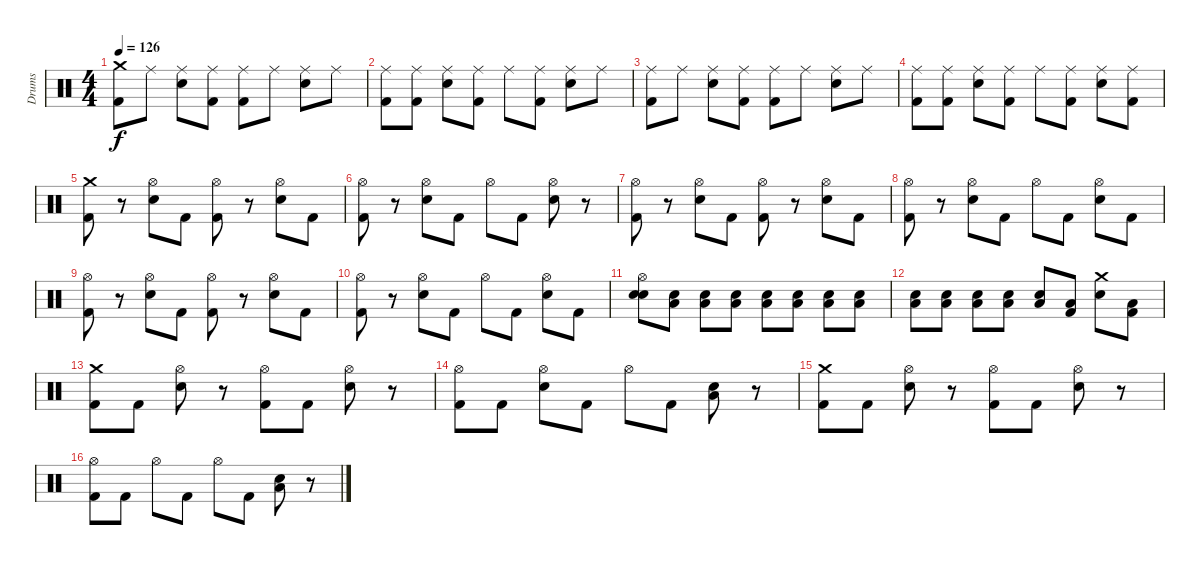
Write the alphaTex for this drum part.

\track ("Drums" "Drums") {instrument percussion}
\staff {score}
\articulation defaults
\ts (4 4)
\tempo 126
\clef neutral
\ks c
("Crash medium (hit)" "Kick (hit) 2").8{dy f} "Ride (middle)".8 ("Ride (middle)" "Snare (hit) 2").8 ("Ride (middle)" "Kick (hit) 2").8 ("Ride (middle)" "Kick (hit) 2").8 "Ride (middle)".8 ("Ride (middle)" "Snare (hit) 2").8 "Ride (middle)".8 |
("Ride (middle)" "Kick (hit) 2").8 ("Ride (middle)" "Kick (hit) 2").8 ("Ride (middle)" "Snare (hit) 2").8 ("Ride (middle)" "Kick (hit) 2").8 "Ride (middle)".8 ("Ride (middle)" "Kick (hit) 2").8 ("Ride (middle)" "Snare (hit) 2").8 "Ride (middle)".8 |
("Ride (middle)" "Kick (hit) 2").8 "Ride (middle)".8 ("Ride (middle)" "Snare (hit) 2").8 ("Ride (middle)" "Kick (hit) 2").8 ("Ride (middle)" "Kick (hit) 2").8 "Ride (middle)".8 ("Ride (middle)" "Snare (hit) 2").8 "Ride (middle)".8 |
("Ride (middle)" "Kick (hit) 2").8 ("Ride (middle)" "Kick (hit) 2").8 ("Ride (middle)" "Snare (hit) 2").8 ("Ride (middle)" "Kick (hit) 2").8 "Ride (middle)".8 ("Ride (middle)" "Kick (hit) 2").8 ("Ride (middle)" "Snare (hit) 2").8 ("Ride (middle)" "Kick (hit) 2").8 |
("Crash medium (hit)" "Kick (hit) 2").8 r.8 ("Hi-Hat (open)" "Snare (hit) 2").8 "Kick (hit) 2".8 ("Hi-Hat (open)" "Kick (hit) 2").8 r.8 ("Hi-Hat (open)" "Snare (hit) 2").8 "Kick (hit) 2".8 |
("Hi-Hat (open)" "Kick (hit) 2").8 r.8 ("Hi-Hat (open)" "Snare (hit) 2").8 "Kick (hit) 2".8 "Hi-Hat (open)".8 "Kick (hit) 2".8 ("Hi-Hat (open)" "Snare (hit) 2").8 r.8 |
("Hi-Hat (open)" "Kick (hit) 2").8 r.8 ("Hi-Hat (open)" "Snare (hit) 2").8 "Kick (hit) 2".8 ("Hi-Hat (open)" "Kick (hit) 2").8 r.8 ("Hi-Hat (open)" "Snare (hit) 2").8 "Kick (hit) 2".8 |
("Hi-Hat (open)" "Kick (hit) 2").8 r.8 ("Hi-Hat (open)" "Snare (hit) 2").8 "Kick (hit) 2".8 "Hi-Hat (open)".8 "Kick (hit) 2".8 ("Hi-Hat (open)" "Snare (hit) 2").8 "Kick (hit) 2".8 |
("Hi-Hat (open)" "Kick (hit) 2").8 r.8 ("Hi-Hat (open)" "Snare (hit) 2").8 "Kick (hit) 2".8 ("Hi-Hat (open)" "Kick (hit) 2").8 r.8 ("Hi-Hat (open)" "Snare (hit) 2").8 "Kick (hit) 2".8 |
("Hi-Hat (open)" "Kick (hit) 2").8 r.8 ("Hi-Hat (open)" "Snare (hit) 2").8 "Kick (hit) 2".8 "Hi-Hat (open)".8 "Kick (hit) 2".8 ("Hi-Hat (open)" "Snare (hit) 2").8 "Kick (hit) 2".8 |
("Hi-Hat (open)" "Snare (hit) 2" "Electric Snare (hit)").8 ("Snare (hit) 2" "Low Tom (hit)").8{volume 7} ("Snare (hit) 2" "Low Tom (hit)").8{volume 16} ("Snare (hit) 2" "Low Tom (hit)").8 ("Snare (hit) 2" "Low Tom (hit)").8 ("Snare (hit) 2" "Low Tom (hit)").8 ("Snare (hit) 2" "Low Tom (hit)").8 ("Snare (hit) 2" "Low Tom (hit)").8 |
("Snare (hit) 2" "Low Tom (hit)").8 ("Snare (hit) 2" "Low Tom (hit)").8 ("Snare (hit) 2" "Low Tom (hit)").8 ("Snare (hit) 2" "Low Tom (hit)").8 ("Snare (hit) 2" "Low Tom (hit)").8 ("Kick (hit) 2" "Low Tom (hit)").8 ("Crash medium (hit)" "Snare (hit) 2").8 ("Kick (hit) 2" "Low Tom (hit)").8 |
("Crash medium (hit)" "Kick (hit) 2").8 "Kick (hit) 2".8 ("Hi-Hat (open)" "Snare (hit) 2").8 r.8 ("Hi-Hat (open)" "Kick (hit) 2").8 "Kick (hit) 2".8 ("Hi-Hat (open)" "Snare (hit) 2").8 r.8 |
("Hi-Hat (open)" "Kick (hit) 2").8 "Kick (hit) 2".8 ("Hi-Hat (open)" "Snare (hit) 2").8 "Kick (hit) 2".8 "Hi-Hat (open)".8 "Kick (hit) 2".8 ("Snare (hit) 2" "Low Tom (hit)").8 r.8 |
("Crash medium (hit)" "Kick (hit) 2").8 "Kick (hit) 2".8 ("Hi-Hat (open)" "Snare (hit) 2").8 r.8 ("Hi-Hat (open)" "Kick (hit) 2").8 "Kick (hit) 2".8 ("Hi-Hat (open)" "Snare (hit) 2").8 r.8 |
("Hi-Hat (open)" "Kick (hit) 2").8 "Kick (hit) 2".8 "Hi-Hat (open)".8 "Kick (hit) 2".8 "Hi-Hat (open)".8 "Kick (hit) 2".8 ("Snare (hit) 2" "Low Tom (hit)").8 r.8
